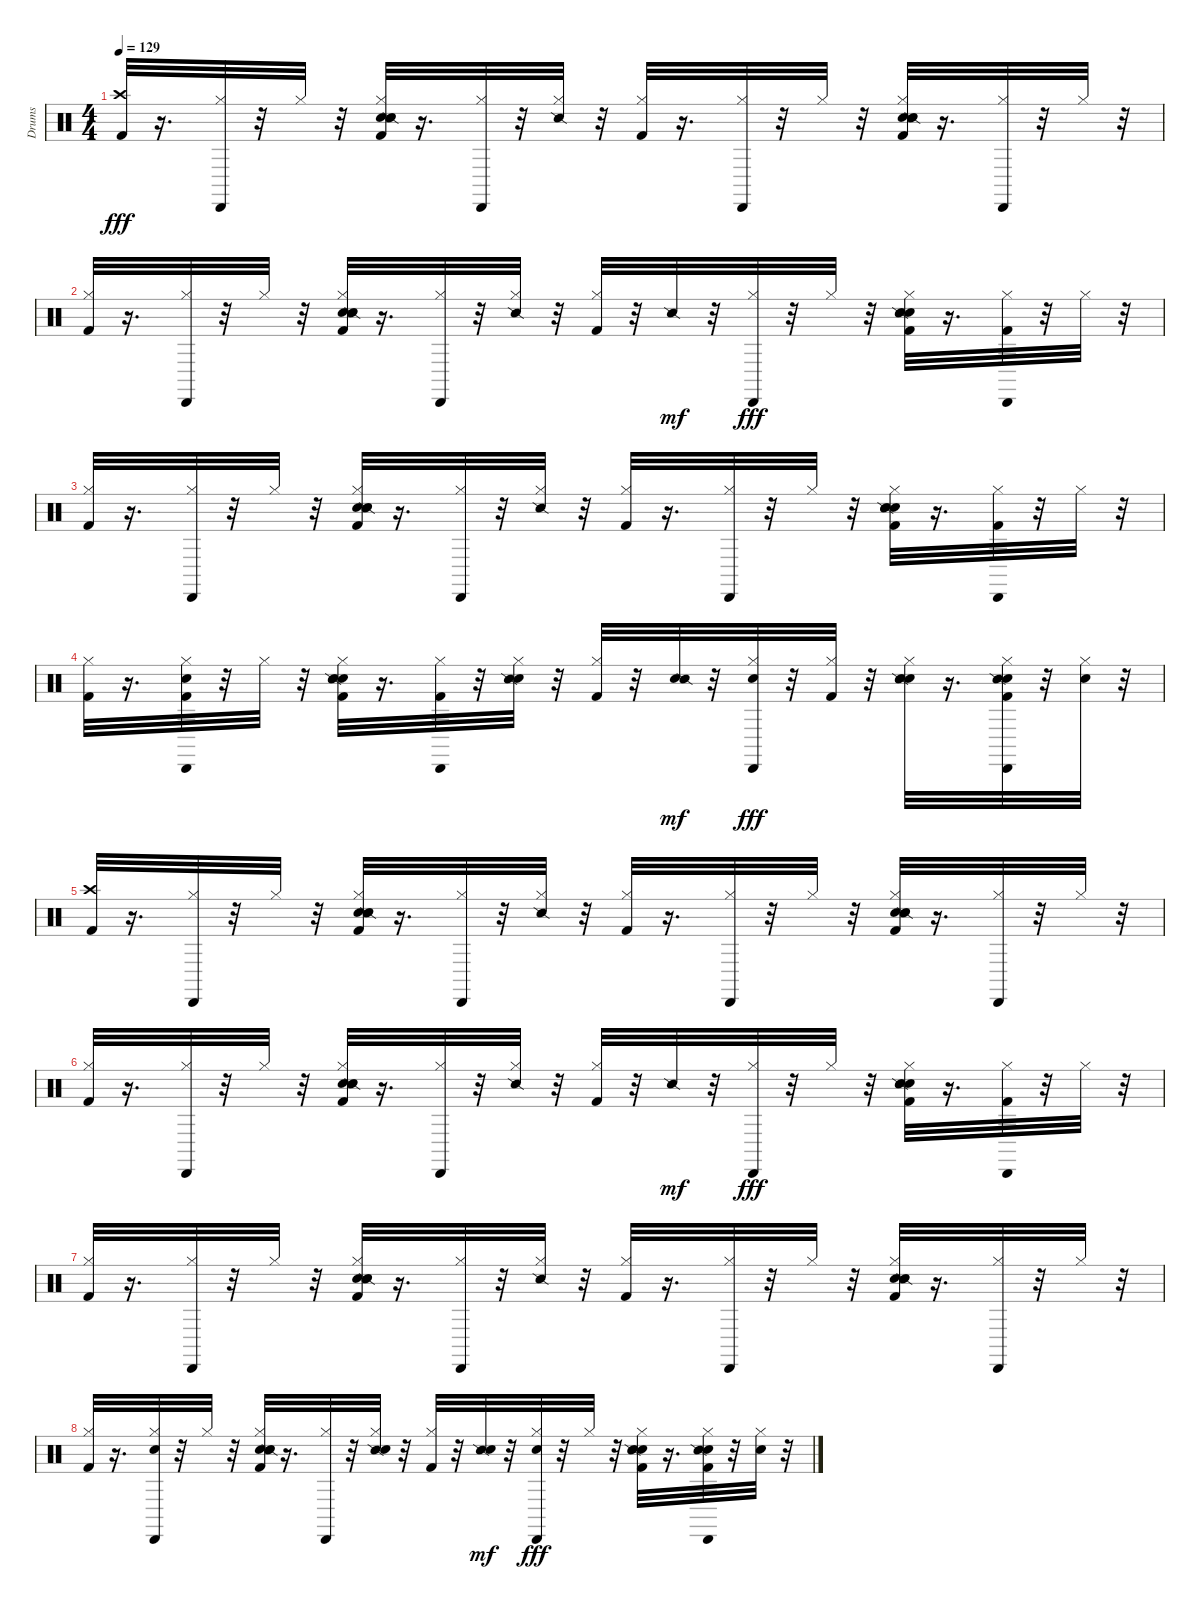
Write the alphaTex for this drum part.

\track ("Drums" "Drums") {instrument percussion}
\staff {score}
\articulation defaults
\ts (4 4)
\tempo 129
\clef neutral
\ks c
("Kick (hit) 2" "Crash high (hit)").32{dy fff} r.16{d} ("Cabasa (hit)" "Hi-Hat (closed)").32 r.32 "Hi-Hat (closed)".32 r.32 ("Snare (hit)" "Snare (side stick) 2" "Hi-Hat (closed)" "Kick (hit) 2" "Hand Clap (hit)").32 r.16{d} ("Cabasa (hit)" "Hi-Hat (closed)").32 r.32 ("Snare (side stick) 2" "Hi-Hat (closed)").32 r.32 ("Kick (hit) 2" "Hi-Hat (closed)").32 r.16{d} ("Cabasa (hit)" "Hi-Hat (closed)").32 r.32 "Hi-Hat (closed)".32 r.32 ("Snare (hit)" "Snare (side stick) 2" "Hi-Hat (closed)" "Kick (hit) 2" "Hand Clap (hit)").32 r.16{d} ("Cabasa (hit)" "Hi-Hat (closed)").32 r.32 "Hi-Hat (closed)".32 r.32 |
("Kick (hit) 2" "Hi-Hat (closed)").32 r.16{d} ("Cabasa (hit)" "Hi-Hat (closed)").32 r.32 "Hi-Hat (closed)".32 r.32 ("Snare (hit)" "Snare (side stick) 2" "Hi-Hat (closed)" "Kick (hit) 2" "Hand Clap (hit)").32 r.16{d} ("Cabasa (hit)" "Hi-Hat (closed)").32 r.32 ("Snare (side stick) 2" "Hi-Hat (closed)").32 r.32 ("Kick (hit) 2" "Hi-Hat (closed)").32 r.32 "Snare (side stick) 2".32{dy mf} r.32 ("Cabasa (hit)" "Hi-Hat (closed)").32{dy fff} r.32 "Hi-Hat (closed)".32 r.32 ("Snare (hit)" "Snare (side stick) 2" "Hi-Hat (closed)" "Kick (hit) 2" "Hand Clap (hit)").32 r.16{d} ("Kick (hit) 2" "Cabasa (hit)" "Hi-Hat (closed)").32 r.32 "Hi-Hat (closed)".32 r.32 |
("Kick (hit) 2" "Hi-Hat (closed)").32 r.16{d} ("Cabasa (hit)" "Hi-Hat (closed)").32 r.32 "Hi-Hat (closed)".32 r.32 ("Snare (hit)" "Hand Clap (hit)" "Snare (side stick) 2" "Hi-Hat (closed)" "Kick (hit) 2").32 r.16{d} ("Cabasa (hit)" "Hi-Hat (closed)").32 r.32 ("Snare (side stick) 2" "Hi-Hat (closed)").32 r.32 ("Kick (hit) 2" "Hi-Hat (closed)").32 r.16{d} ("Cabasa (hit)" "Hi-Hat (closed)").32 r.32 "Hi-Hat (closed)".32 r.32 ("Snare (hit)" "Hand Clap (hit)" "Snare (side stick) 2" "Hi-Hat (closed)" "Kick (hit) 2").32 r.16{d} ("Cabasa (hit)" "Hi-Hat (closed)" "Kick (hit) 2").32 r.32 "Hi-Hat (closed)".32 r.32 |
("Kick (hit) 2" "Hi-Hat (closed)").32 r.16{d} ("Hand Clap (hit)" "Cabasa (hit)" "Hi-Hat (closed)" "Kick (hit) 2").32 r.32 "Hi-Hat (closed)".32 r.32 ("Snare (hit)" "Hand Clap (hit)" "Snare (side stick) 2" "Hi-Hat (closed)" "Kick (hit) 2").32 r.16{d} ("Cabasa (hit)" "Hi-Hat (closed)" "Kick (hit) 2").32 r.32 ("Hand Clap (hit)" "Snare (side stick) 2" "Hi-Hat (closed)").32 r.32 ("Kick (hit) 2" "Hi-Hat (closed)").32 r.32 ("Hand Clap (hit)" "Snare (side stick) 2").32{dy mf} r.32 ("Hand Clap (hit)" "Cabasa (hit)" "Hi-Hat (closed)").32{dy fff} r.32 ("Hi-Hat (closed)" "Kick (hit) 2").32 r.32 ("Snare (hit)" "Hand Clap (hit)" "Snare (side stick) 2" "Hi-Hat (closed)").32 r.16{d} ("Hand Clap (hit)" "Kick (hit) 2" "Cabasa (hit)" "Hi-Hat (closed)" "Snare (side stick) 2").32 r.32 ("Hand Clap (hit)" "Hi-Hat (closed)").32 r.32 |
("Kick (hit) 2" "Crash high (hit)").32 r.16{d} ("Cabasa (hit)" "Hi-Hat (closed)").32 r.32 "Hi-Hat (closed)".32 r.32 ("Snare (hit)" "Hand Clap (hit)" "Snare (side stick) 2" "Hi-Hat (closed)" "Kick (hit) 2").32 r.16{d} ("Cabasa (hit)" "Hi-Hat (closed)").32 r.32 ("Snare (side stick) 2" "Hi-Hat (closed)").32 r.32 ("Kick (hit) 2" "Hi-Hat (closed)").32 r.16{d} ("Cabasa (hit)" "Hi-Hat (closed)").32 r.32 "Hi-Hat (closed)".32 r.32 ("Snare (hit)" "Hand Clap (hit)" "Snare (side stick) 2" "Hi-Hat (closed)" "Kick (hit) 2").32 r.16{d} ("Cabasa (hit)" "Hi-Hat (closed)").32 r.32 "Hi-Hat (closed)".32 r.32 |
("Kick (hit) 2" "Hi-Hat (closed)").32 r.16{d} ("Cabasa (hit)" "Hi-Hat (closed)").32 r.32 "Hi-Hat (closed)".32 r.32 ("Snare (hit)" "Hand Clap (hit)" "Snare (side stick) 2" "Hi-Hat (closed)" "Kick (hit) 2").32 r.16{d} ("Cabasa (hit)" "Hi-Hat (closed)").32 r.32 ("Snare (side stick) 2" "Hi-Hat (closed)").32 r.32 ("Kick (hit) 2" "Hi-Hat (closed)").32 r.32 "Snare (side stick) 2".32{dy mf} r.32 ("Cabasa (hit)" "Hi-Hat (closed)").32{dy fff} r.32 "Hi-Hat (closed)".32 r.32 ("Snare (hit)" "Hand Clap (hit)" "Snare (side stick) 2" "Hi-Hat (closed)" "Kick (hit) 2").32 r.16{d} ("Kick (hit) 2" "Cabasa (hit)" "Hi-Hat (closed)").32 r.32 "Hi-Hat (closed)".32 r.32 |
("Kick (hit) 2" "Hi-Hat (closed)").32 r.16{d} ("Cabasa (hit)" "Hi-Hat (closed)").32 r.32 "Hi-Hat (closed)".32 r.32 ("Snare (hit)" "Snare (side stick) 2" "Hi-Hat (closed)" "Kick (hit) 2" "Hand Clap (hit)").32 r.16{d} ("Cabasa (hit)" "Hi-Hat (closed)").32 r.32 ("Snare (side stick) 2" "Hi-Hat (closed)").32 r.32 ("Kick (hit) 2" "Hi-Hat (closed)").32 r.16{d} ("Cabasa (hit)" "Hi-Hat (closed)").32 r.32 "Hi-Hat (closed)".32 r.32 ("Snare (hit)" "Snare (side stick) 2" "Hi-Hat (closed)" "Kick (hit) 2" "Hand Clap (hit)").32 r.16{d} ("Cabasa (hit)" "Hi-Hat (closed)").32 r.32 "Hi-Hat (closed)".32 r.32 |
("Kick (hit) 2" "Hi-Hat (closed)").32 r.16{d} ("Cabasa (hit)" "Hi-Hat (closed)" "Hand Clap (hit)").32 r.32 "Hi-Hat (closed)".32 r.32 ("Snare (hit)" "Snare (side stick) 2" "Hi-Hat (closed)" "Kick (hit) 2" "Hand Clap (hit)").32 r.16{d} ("Cabasa (hit)" "Hi-Hat (closed)").32 r.32 ("Snare (side stick) 2" "Hi-Hat (closed)" "Hand Clap (hit)").32 r.32 ("Kick (hit) 2" "Hi-Hat (closed)").32 r.32 ("Snare (side stick) 2" "Hand Clap (hit)").32{dy mf} r.32 ("Cabasa (hit)" "Hi-Hat (closed)" "Hand Clap (hit)").32{dy fff} r.32 "Hi-Hat (closed)".32 r.32 ("Snare (hit)" "Snare (side stick) 2" "Hi-Hat (closed)" "Kick (hit) 2" "Hand Clap (hit)").32 r.16{d} ("Kick (hit) 2" "Cabasa (hit)" "Hi-Hat (closed)" "Hand Clap (hit)" "Snare (side stick) 2").32 r.32 ("Hi-Hat (closed)" "Hand Clap (hit)").32 r.32
